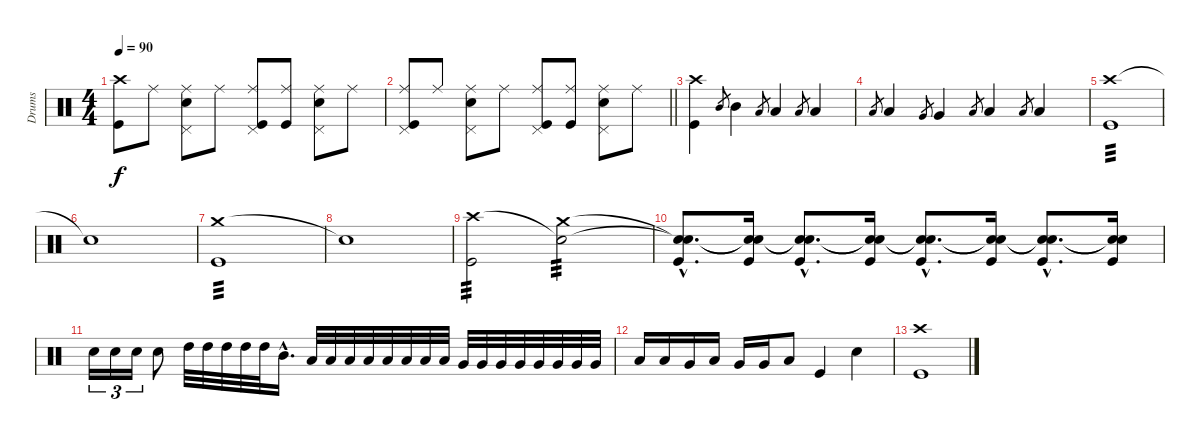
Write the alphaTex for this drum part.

\track ("Drums" "Drums") {instrument percussion}
\staff {score}
\articulation defaults
\ts (4 4)
\tempo 90
\clef neutral
\ks c
("Crash high (hit)" "Kick (hit)").8{dy f} "Ride (middle)".8 ("Pedal Hi-Hat (hit)" "Ride (middle)" "Electric Snare (hit)").8 "Ride (middle)".8 ("Pedal Hi-Hat (hit)" "Ride (middle)" "Kick (hit)").8 ("Ride (middle)" "Kick (hit)").8 ("Pedal Hi-Hat (hit)" "Ride (middle)" "Electric Snare (hit)").8 "Ride (middle)".8 |
\barLineRight lightlight
("Pedal Hi-Hat (hit)" "Ride (middle)" "Kick (hit)").8 "Ride (middle)".8 ("Pedal Hi-Hat (hit)" "Ride (middle)" "Electric Snare (hit)").8 "Ride (middle)".8 ("Pedal Hi-Hat (hit)" "Ride (middle)" "Kick (hit)").8 ("Ride (middle)" "Kick (hit)").8 ("Pedal Hi-Hat (hit)" "Ride (middle)" "Electric Snare (hit)").8 "Ride (middle)".8 |
("Crash high (hit)" "Kick (hit)").4 "Mid Tom (hit)".8{gr} "Mid Tom (hit)".4 "Low Tom (hit)".8{gr} "Low Tom (hit)".4 "Low Tom (hit)".8{gr} "Low Tom (hit)".4 |
"Low Tom (hit)".8{gr} "Low Tom (hit)".4 "Very Low Tom (hit)".8{gr} "Very Low Tom (hit)".4 "Low Floor Tom (hit)".8{gr} "Low Floor Tom (hit)".4 "Low Floor Tom (hit)".8{gr} "Low Floor Tom (hit)".4 |
("Crash high (hit)" "Kick (hit)").1{tp 3} |
"Snare (hit)"{t}.1 |
("Crash medium (hit)" "Kick (hit)").1{tp 3} |
"Snare (hit)"{t}.1 |
("Crash high (hit)" "Kick (hit)").2{tp 3} ("Snare (hit)"{t} "Crash medium (hit)").2{tp 3} |
("Snare (hit)"{hac t} "Snare (hit)"{hac t} "Kick (hit)"{hac}).8{d} ("Snare (hit)"{t} "Snare (hit)"{t} "Kick (hit)").16 ("Snare (hit)"{hac t} "Snare (hit)"{hac t} "Kick (hit)"{hac}).8{d} ("Snare (hit)"{t} "Snare (hit)"{t} "Kick (hit)").16 ("Snare (hit)"{hac t} "Snare (hit)"{hac t} "Kick (hit)"{hac}).8{d} ("Snare (hit)"{t} "Snare (hit)"{t} "Kick (hit)").16 ("Snare (hit)"{hac t} "Snare (hit)"{hac t} "Kick (hit)"{hac}).8{d} ("Snare (hit)"{t} "Snare (hit)"{t} "Kick (hit)").16 |
"Electric Snare (hit)".16{tu (3 2)} "Electric Snare (hit)".16{tu (3 2)} "Electric Snare (hit)".16{tu (3 2)} "Electric Snare (hit)".8 "High Tom (hit)".32 "High Tom (hit)".32 "High Tom (hit)".32 "High Tom (hit)".32 "High Tom (hit)".32 "Mid Tom (hit)"{hac}.16{d} "Low Tom (hit)".32 "Low Tom (hit)".32 "Low Tom (hit)".32 "Low Tom (hit)".32 "Low Tom (hit)".32 "Low Tom (hit)".32 "Low Tom (hit)".32 "Low Tom (hit)".32 "Very Low Tom (hit)".32 "Very Low Tom (hit)".32 "Very Low Tom (hit)".32 "Very Low Tom (hit)".32 "Very Low Tom (hit)".32 "Very Low Tom (hit)".32 "Very Low Tom (hit)".32 "Very Low Tom (hit)".32 |
"Low Tom (hit)".16 "Low Tom (hit)".16 "Very Low Tom (hit)".16 "Low Tom (hit)".16 "Very Low Tom (hit)".16 "Very Low Tom (hit)".16 "Low Floor Tom (hit)".8 "Kick (hit)".4 "Electric Snare (hit)".4 |
("Crash high (hit)" "Kick (hit)").1
